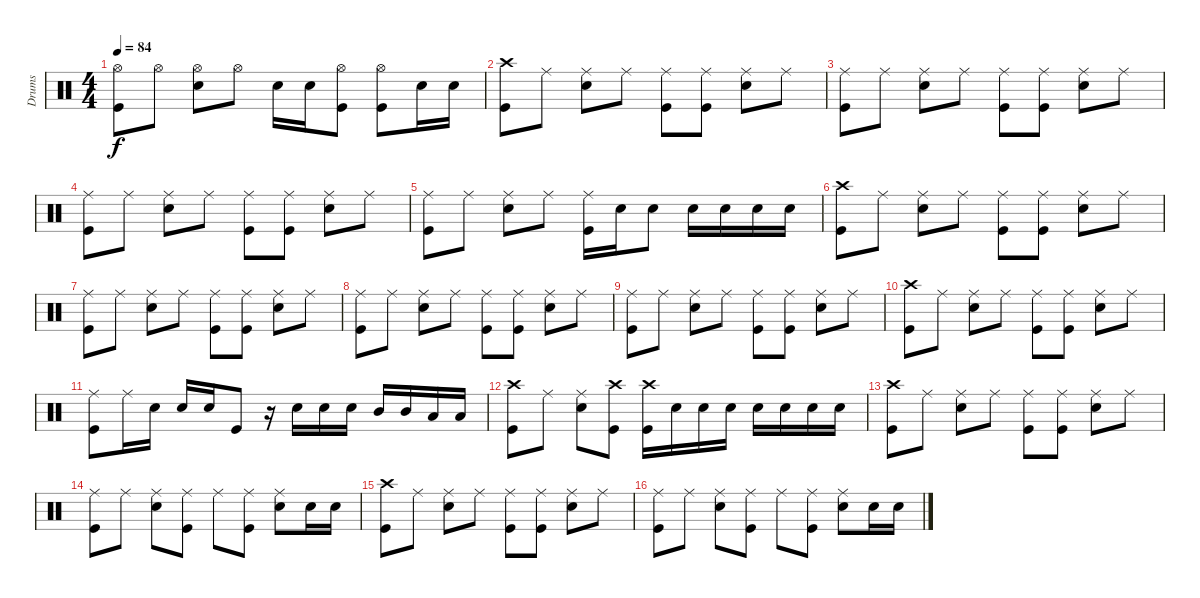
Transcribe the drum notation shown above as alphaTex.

\track ("Drums" "Drums") {instrument percussion}
\staff {score}
\articulation defaults
\ts (4 4)
\tempo 84
\clef neutral
\ks c
("Hi-Hat (open)" "Kick (hit)").8{dy f} "Hi-Hat (open)".8 ("Hi-Hat (open)" "Snare (hit) 2").8 "Hi-Hat (open)".8 "Snare (hit) 2".16 "Snare (hit) 2".16 ("Hi-Hat (open)" "Kick (hit)").8 ("Hi-Hat (open)" "Kick (hit)").8 "Snare (hit) 2".16 "Snare (hit) 2".16 |
("Crash high (hit)" "Kick (hit)").8 "Ride (middle)".8 ("Ride (middle)" "Snare (hit) 2").8 "Ride (middle)".8 ("Ride (middle)" "Kick (hit)").8 ("Ride (middle)" "Kick (hit)").8 ("Ride (middle)" "Snare (hit) 2").8 "Ride (middle)".8 |
("Ride (middle)" "Kick (hit)").8 "Ride (middle)".8 ("Ride (middle)" "Snare (hit) 2").8 "Ride (middle)".8 ("Ride (middle)" "Kick (hit)").8 ("Ride (middle)" "Kick (hit)").8 ("Ride (middle)" "Snare (hit) 2").8 "Ride (middle)".8 |
("Ride (middle)" "Kick (hit)").8 "Ride (middle)".8 ("Ride (middle)" "Snare (hit) 2").8 "Ride (middle)".8 ("Ride (middle)" "Kick (hit)").8 ("Ride (middle)" "Kick (hit)").8 ("Ride (middle)" "Snare (hit) 2").8 "Ride (middle)".8 |
("Ride (middle)" "Kick (hit)").8 "Ride (middle)".8 ("Ride (middle)" "Snare (hit) 2").8 "Ride (middle)".8 ("Ride (middle)" "Kick (hit)").16 "Snare (hit) 2".16 "Snare (hit) 2".8 "Snare (hit) 2".16 "Snare (hit) 2".16 "Snare (hit) 2".16 "Snare (hit) 2".16 |
("Crash high (hit)" "Kick (hit)").8 "Ride (middle)".8 ("Ride (middle)" "Snare (hit) 2").8 "Ride (middle)".8 ("Ride (middle)" "Kick (hit)").8 ("Ride (middle)" "Kick (hit)").8 ("Ride (middle)" "Snare (hit) 2").8 "Ride (middle)".8 |
("Ride (middle)" "Kick (hit)").8 "Ride (middle)".8 ("Ride (middle)" "Snare (hit) 2").8 "Ride (middle)".8 ("Ride (middle)" "Kick (hit)").8 ("Ride (middle)" "Kick (hit)").8 ("Ride (middle)" "Snare (hit) 2").8 "Ride (middle)".8 |
("Ride (middle)" "Kick (hit)").8 "Ride (middle)".8 ("Ride (middle)" "Snare (hit) 2").8 "Ride (middle)".8 ("Ride (middle)" "Kick (hit)").8 ("Ride (middle)" "Kick (hit)").8 ("Ride (middle)" "Snare (hit) 2").8 "Ride (middle)".8 |
("Ride (middle)" "Kick (hit)").8 "Ride (middle)".8 ("Ride (middle)" "Snare (hit) 2").8 "Ride (middle)".8 ("Ride (middle)" "Kick (hit)").8 ("Ride (middle)" "Kick (hit)").8 ("Ride (middle)" "Snare (hit) 2").8 "Ride (middle)".8 |
("Crash high (hit)" "Kick (hit)").8 "Ride (middle)".8 ("Ride (middle)" "Snare (hit) 2").8 "Ride (middle)".8 ("Ride (middle)" "Kick (hit)").8 ("Ride (middle)" "Kick (hit)").8 ("Ride (middle)" "Snare (hit) 2").8 "Ride (middle)".8 |
("Ride (middle)" "Kick (hit)").8 "Ride (middle)".16 "Snare (hit) 2".16 "Snare (hit) 2".16 "Snare (hit) 2".16 "Kick (hit)".8 r.16 "Snare (hit) 2".16 "Snare (hit) 2".16 "Snare (hit) 2".16 "Mid Tom (hit)".16 "Mid Tom (hit)".16 "Low Tom (hit)".16 "Low Tom (hit)".16 |
("Crash high (hit)" "Kick (hit)").8 "Ride (middle)".8 ("Ride (middle)" "Snare (hit) 2").8 ("Crash high (hit)" "Kick (hit)").8 ("Crash high (hit)" "Kick (hit)").16 "Snare (hit) 2".16 "Snare (hit) 2".16 "Snare (hit) 2".16 "Snare (hit) 2".16 "Snare (hit) 2".16 "Snare (hit) 2".16 "Snare (hit) 2".16 |
("Crash high (hit)" "Kick (hit)").8 "Ride (middle)".8 ("Ride (middle)" "Snare (hit) 2").8 "Ride (middle)".8 ("Ride (middle)" "Kick (hit)").8 ("Ride (middle)" "Kick (hit)").8 ("Ride (middle)" "Snare (hit) 2").8 "Ride (middle)".8 |
("Ride (middle)" "Kick (hit)").8 "Ride (middle)".8 ("Ride (middle)" "Snare (hit) 2").8 ("Ride (middle)" "Kick (hit)").8 "Ride (middle)".8 ("Ride (middle)" "Kick (hit)").8 ("Ride (middle)" "Snare (hit) 2").8 "Snare (hit) 2".16 "Snare (hit) 2".16 |
("Crash high (hit)" "Kick (hit)").8 "Ride (middle)".8 ("Ride (middle)" "Snare (hit) 2").8 "Ride (middle)".8 ("Ride (middle)" "Kick (hit)").8 ("Ride (middle)" "Kick (hit)").8 ("Ride (middle)" "Snare (hit) 2").8 "Ride (middle)".8 |
("Ride (middle)" "Kick (hit)").8 "Ride (middle)".8 ("Ride (middle)" "Snare (hit) 2").8 ("Ride (middle)" "Kick (hit)").8 "Ride (middle)".8 ("Ride (middle)" "Kick (hit)").8 ("Ride (middle)" "Snare (hit) 2").8 "Snare (hit) 2".16 "Snare (hit) 2".16
